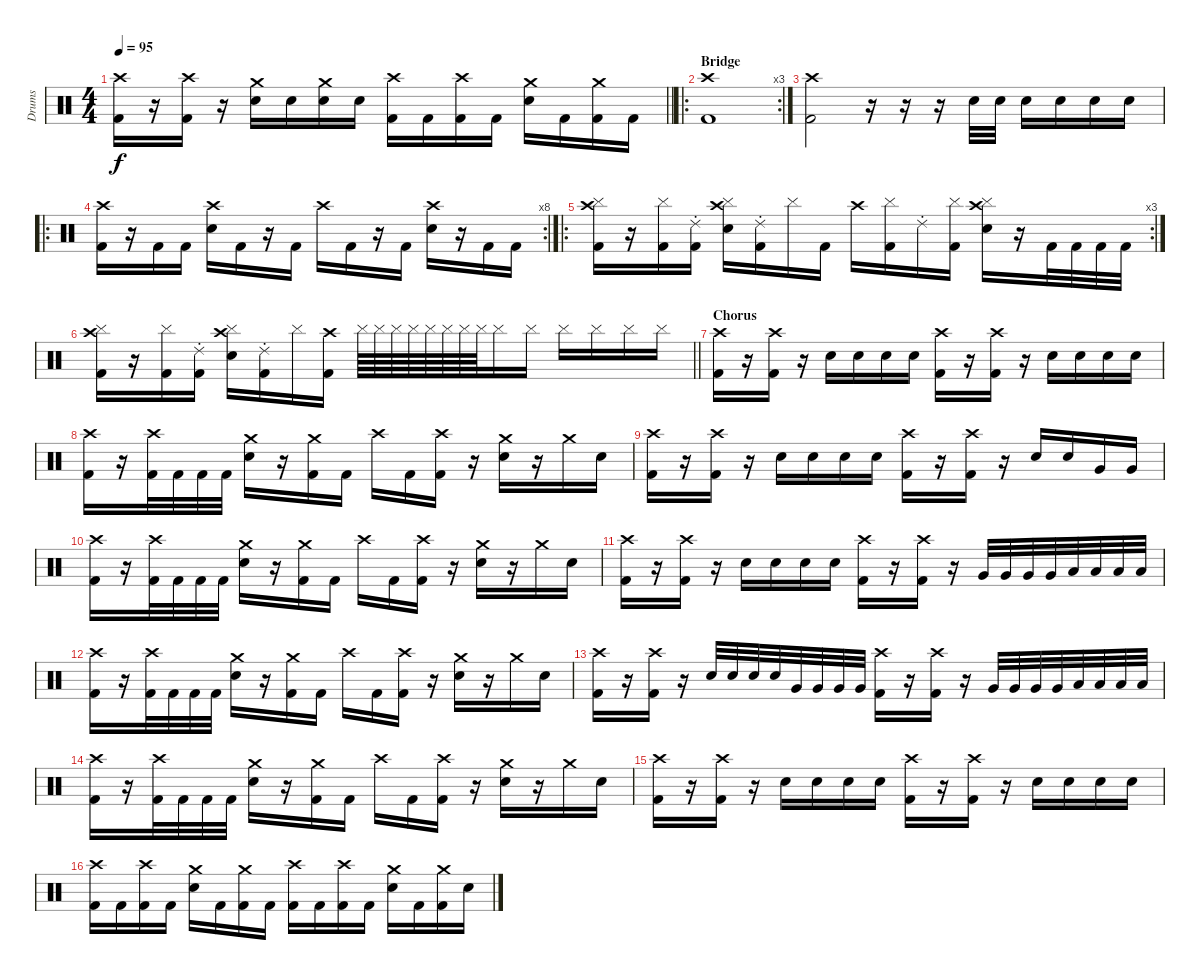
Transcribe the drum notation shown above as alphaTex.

\track ("Drums" "Drums") {instrument percussion}
\staff {score}
\articulation defaults
\ts (4 4)
\tempo 95
\clef neutral
\barLineRight lightlight
\ks c
("Crash high (hit)" "Kick (hit) 2").16{dy f} r.16 ("Crash high (hit)" "Kick (hit) 2").16 r.16 ("Crash medium (hit)" "Electric Snare (hit)").16 "Electric Snare (hit)".16 ("Crash medium (hit)" "Electric Snare (hit)").16 "Electric Snare (hit)".16 ("Crash high (hit)" "Kick (hit) 2").16 "Kick (hit) 2".16 ("Crash high (hit)" "Kick (hit) 2").16 "Kick (hit) 2".16 ("Crash medium (hit)" "Electric Snare (hit)").16 "Kick (hit) 2".16 ("Crash medium (hit)" "Kick (hit) 2").16 "Kick (hit) 2".16 |
\ro
\rc 3
\section ("" "Bridge")
("Crash high (hit)" "Kick (hit) 2").1 |
("Crash high (hit)" "Kick (hit) 2").2 r.16 r.16 r.16 "Electric Snare (hit)".32 "Electric Snare (hit)".32 "Electric Snare (hit)".16 "Electric Snare (hit)".16 "Electric Snare (hit)".16 "Electric Snare (hit)".16 |
\ro
\rc 8
("Crash high (hit)" "Kick (hit) 2").16 r.16 "Kick (hit) 2".16 "Kick (hit) 2".16 ("Crash high (hit)" "Electric Snare (hit)").16 "Kick (hit) 2".16 r.16 "Kick (hit) 2".16 "Crash high (hit)".16 "Kick (hit) 2".16 r.16 "Kick (hit) 2".16 ("Crash high (hit)" "Electric Snare (hit)").16 r.16 "Kick (hit) 2".16 "Kick (hit) 2".16 |
\ro
\rc 3
("Crash high (hit)" "Cymbal (hit)" "Kick (hit) 2").16 r.16 ("Cymbal (hit)" "Kick (hit) 2").16 ("Ride (choke) 2" "Kick (hit) 2").16 ("Crash high (hit)" "Cymbal (hit)" "Electric Snare (hit)").16 ("Ride (choke) 2" "Kick (hit) 2").16 "Cymbal (hit)".16 "Kick (hit) 2".16 "Crash high (hit)".16 ("Cymbal (hit)" "Kick (hit) 2").16 "Ride (choke) 2".16 ("Cymbal (hit)" "Kick (hit) 2").16 ("Crash high (hit)" "Cymbal (hit)" "Electric Snare (hit)").16 r.16 "Kick (hit) 2".32 "Kick (hit) 2".32 "Kick (hit) 2".32 "Kick (hit) 2".32 |
\barLineRight lightlight
("Crash high (hit)" "Cymbal (hit)" "Kick (hit) 2").16 r.16 ("Cymbal (hit)" "Kick (hit) 2").16 ("Ride (choke) 2" "Kick (hit) 2").16 ("Crash high (hit)" "Cymbal (hit)" "Electric Snare (hit)").16 ("Ride (choke) 2" "Kick (hit) 2").16 "Cymbal (hit)".16 ("Crash high (hit)" "Kick (hit) 2").16 "Cymbal (hit)".64 "Cymbal (hit)".64 "Cymbal (hit)".64 "Cymbal (hit)".64 "Cymbal (hit)".64 "Cymbal (hit)".64 "Cymbal (hit)".64 "Cymbal (hit)".64 "Cymbal (hit)".16 "Cymbal (hit)".16 "Cymbal (hit)".16 "Cymbal (hit)".16 "Cymbal (hit)".16 "Cymbal (hit)".16 |
\section ("" "Chorus")
("Crash high (hit)" "Kick (hit) 2").16 r.16 ("Crash high (hit)" "Kick (hit) 2").16 r.16 "Electric Snare (hit)".16 "Electric Snare (hit)".16 "Electric Snare (hit)".16 "Electric Snare (hit)".16 ("Crash high (hit)" "Kick (hit) 2").16 r.16 ("Crash high (hit)" "Kick (hit) 2").16 r.16 "Electric Snare (hit)".16 "Electric Snare (hit)".16 "Electric Snare (hit)".16 "Electric Snare (hit)".16 |
("Crash high (hit)" "Kick (hit) 2").16 r.16 ("Crash high (hit)" "Kick (hit) 2").32 "Kick (hit) 2".32 "Kick (hit) 2".32 "Kick (hit) 2".32 ("Crash medium (hit)" "Electric Snare (hit)").16 r.16 ("Crash medium (hit)" "Kick (hit) 2").16 "Kick (hit) 2".16 "Crash high (hit)".16 "Kick (hit) 2".16 ("Crash high (hit)" "Kick (hit) 2").16 r.16 ("Crash medium (hit)" "Electric Snare (hit)").16 r.16 "Crash medium (hit)".16 "Electric Snare (hit)".16 |
("Crash high (hit)" "Kick (hit) 2").16 r.16 ("Crash high (hit)" "Kick (hit) 2").16 r.16 "Electric Snare (hit)".16 "Electric Snare (hit)".16 "Electric Snare (hit)".16 "Electric Snare (hit)".16 ("Crash high (hit)" "Kick (hit) 2").16 r.16 ("Crash high (hit)" "Kick (hit) 2").16 r.16 "Electric Snare (hit)".16 "Electric Snare (hit)".16 "Very Low Tom (hit)".16 "Very Low Tom (hit)".16 |
("Crash high (hit)" "Kick (hit) 2").16 r.16 ("Crash high (hit)" "Kick (hit) 2").32 "Kick (hit) 2".32 "Kick (hit) 2".32 "Kick (hit) 2".32 ("Crash medium (hit)" "Electric Snare (hit)").16 r.16 ("Crash medium (hit)" "Kick (hit) 2").16 "Kick (hit) 2".16 "Crash high (hit)".16 "Kick (hit) 2".16 ("Crash high (hit)" "Kick (hit) 2").16 r.16 ("Crash medium (hit)" "Electric Snare (hit)").16 r.16 "Crash medium (hit)".16 "Electric Snare (hit)".16 |
("Crash high (hit)" "Kick (hit) 2").16 r.16 ("Crash high (hit)" "Kick (hit) 2").16 r.16 "Electric Snare (hit)".16 "Electric Snare (hit)".16 "Electric Snare (hit)".16 "Electric Snare (hit)".16 ("Crash high (hit)" "Kick (hit) 2").16 r.16 ("Crash high (hit)" "Kick (hit) 2").16 r.16 "Very Low Tom (hit)".32 "Very Low Tom (hit)".32 "Very Low Tom (hit)".32 "Very Low Tom (hit)".32 "Low Floor Tom (hit)".32 "Low Floor Tom (hit)".32 "Low Floor Tom (hit)".32 "Low Floor Tom (hit)".32 |
("Crash high (hit)" "Kick (hit) 2").16 r.16 ("Crash high (hit)" "Kick (hit) 2").32 "Kick (hit) 2".32 "Kick (hit) 2".32 "Kick (hit) 2".32 ("Crash medium (hit)" "Electric Snare (hit)").16 r.16 ("Crash medium (hit)" "Kick (hit) 2").16 "Kick (hit) 2".16 "Crash high (hit)".16 "Kick (hit) 2".16 ("Crash high (hit)" "Kick (hit) 2").16 r.16 ("Crash medium (hit)" "Electric Snare (hit)").16 r.16 "Crash medium (hit)".16 "Electric Snare (hit)".16 |
("Crash high (hit)" "Kick (hit) 2").16 r.16 ("Crash high (hit)" "Kick (hit) 2").16 r.16 "Electric Snare (hit)".32 "Electric Snare (hit)".32 "Electric Snare (hit)".32 "Electric Snare (hit)".32 "Very Low Tom (hit)".32 "Very Low Tom (hit)".32 "Very Low Tom (hit)".32 "Very Low Tom (hit)".32 ("Crash high (hit)" "Kick (hit) 2").16 r.16 ("Crash high (hit)" "Kick (hit) 2").16 r.16 "Very Low Tom (hit)".32 "Very Low Tom (hit)".32 "Very Low Tom (hit)".32 "Very Low Tom (hit)".32 "Low Floor Tom (hit)".32 "Low Floor Tom (hit)".32 "Low Floor Tom (hit)".32 "Low Floor Tom (hit)".32 |
("Crash high (hit)" "Kick (hit) 2").16 r.16 ("Crash high (hit)" "Kick (hit) 2").32 "Kick (hit) 2".32 "Kick (hit) 2".32 "Kick (hit) 2".32 ("Crash medium (hit)" "Electric Snare (hit)").16 r.16 ("Crash medium (hit)" "Kick (hit) 2").16 "Kick (hit) 2".16 "Crash high (hit)".16 "Kick (hit) 2".16 ("Crash high (hit)" "Kick (hit) 2").16 r.16 ("Crash medium (hit)" "Electric Snare (hit)").16 r.16 "Crash medium (hit)".16 "Electric Snare (hit)".16 |
("Crash high (hit)" "Kick (hit) 2").16 r.16 ("Crash high (hit)" "Kick (hit) 2").16 r.16 "Electric Snare (hit)".16 "Electric Snare (hit)".16 "Electric Snare (hit)".16 "Electric Snare (hit)".16 ("Crash high (hit)" "Kick (hit) 2").16 r.16 ("Crash high (hit)" "Kick (hit) 2").16 r.16 "Electric Snare (hit)".16 "Electric Snare (hit)".16 "Electric Snare (hit)".16 "Electric Snare (hit)".16 |
("Crash high (hit)" "Kick (hit) 2").16 "Kick (hit) 2".16 ("Crash high (hit)" "Kick (hit) 2").16 "Kick (hit) 2".16 ("Crash medium (hit)" "Electric Snare (hit)").16 "Kick (hit) 2".16 ("Crash medium (hit)" "Kick (hit) 2").16 "Kick (hit) 2".16 ("Crash high (hit)" "Kick (hit) 2").16 "Kick (hit) 2".16 ("Crash high (hit)" "Kick (hit) 2").16 "Kick (hit) 2".16 ("Crash medium (hit)" "Electric Snare (hit)").16 "Kick (hit) 2".16 ("Crash medium (hit)" "Kick (hit) 2").16 "Electric Snare (hit)".16
